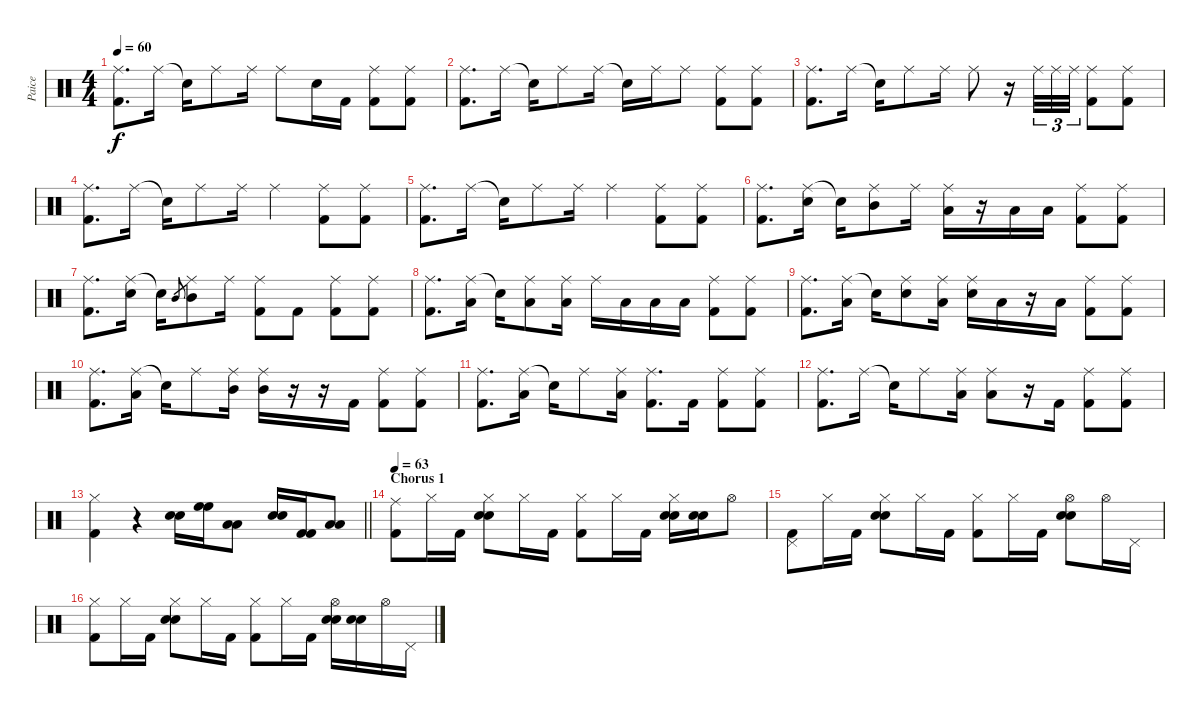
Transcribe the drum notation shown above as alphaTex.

\track ("Paice" "Paice") {instrument percussion}
\staff {score}
\articulation defaults
\ts (4 4)
\tempo 60
\clef neutral
\ks c
("Ride (middle)" "Kick (hit) 2").8{d dy f} "Ride (middle)".16 "Snare (hit)"{t}.16 "Ride (middle)".8 "Ride (middle)".16 "Ride (middle)".8 "Snare (hit)"{x}.16 "Kick (hit) 2".16 ("Ride (middle)" "Kick (hit) 2").8 ("Ride (middle)" "Kick (hit) 2").8 |
("Ride (middle)" "Kick (hit) 2").8{d} "Ride (middle)".16 "Snare (hit)"{t}.16 "Ride (middle)".8 "Ride (middle)".16 "Snare (hit)"{t}.16 "Ride (middle)".16 "Ride (middle)".8 ("Ride (middle)" "Kick (hit) 2").8 ("Ride (middle)" "Kick (hit) 2").8 |
("Ride (middle)" "Kick (hit) 2").8{d} "Ride (middle)".16 "Snare (hit)"{t}.16 "Ride (middle)".8 "Ride (middle)".16 "Ride (middle)".8 r.16 "Ride (middle)".32{tu (3 2)} "Ride (middle)".32{tu (3 2)} "Ride (middle)".32{tu (3 2)} ("Ride (middle)" "Kick (hit) 2").8 ("Ride (middle)" "Kick (hit) 2").8 |
("Ride (middle)" "Kick (hit) 2").8{d} "Ride (middle)".16 "Snare (hit)"{t}.16 "Ride (middle)".8 "Ride (middle)".16 "Ride (middle)".4 ("Ride (middle)" "Kick (hit) 2").8 ("Ride (middle)" "Kick (hit) 2").8 |
("Ride (middle)" "Kick (hit) 2").8{d} "Ride (middle)".16 "Snare (hit)"{t}.16 "Ride (middle)".8 "Ride (middle)".16 "Ride (middle)".4 ("Ride (middle)" "Kick (hit) 2").8 ("Ride (middle)" "Kick (hit) 2").8 |
("Ride (middle)" "Kick (hit) 2").8{d} ("Ride (middle)" "Electric Snare (hit)").16 "Snare (hit)"{t}.16 ("Ride (middle)" "Mid Tom (hit)").8 "Ride (middle)".16 ("Ride (middle)" "Low Tom (hit)").16 r.16 "Low Tom (hit)".16 "Low Tom (hit)".16 ("Ride (middle)" "Kick (hit) 2").8 ("Ride (middle)" "Kick (hit) 2").8 |
("Ride (middle)" "Kick (hit) 2").8{d} ("Ride (middle)" "Electric Snare (hit)").16 "Snare (hit)"{t}.16 "Mid Tom (hit)".8{gr} ("Ride (middle)" "Mid Tom (hit)").8 "Ride (middle)".16 ("Ride (middle)" "Kick (hit) 2").8 "Kick (hit) 2".8 ("Ride (middle)" "Kick (hit) 2").8 ("Ride (middle)" "Kick (hit) 2").8 |
("Ride (middle)" "Kick (hit) 2").8{d} ("Ride (middle)" "Low Tom (hit)").16 "Snare (hit)"{t}.16 ("Ride (middle)" "Low Tom (hit)").8 ("Ride (middle)" "Low Tom (hit)").16 "Ride (middle)".16 "Low Tom (hit)".16 "Low Tom (hit)".16 "Low Tom (hit)".16 ("Ride (middle)" "Kick (hit) 2").8 ("Ride (middle)" "Kick (hit) 2").8 |
("Ride (middle)" "Kick (hit) 2").8{d} ("Ride (middle)" "Low Tom (hit)").16 "Snare (hit)"{t}.16 ("Ride (middle)" "Electric Snare (hit)").8 ("Ride (middle)" "Low Floor Tom (hit)").16 ("Ride (middle)" "Electric Snare (hit)").16 "Low Tom (hit)".16 r.16 "Low Tom (hit)".16 ("Ride (middle)" "Kick (hit) 2").8 ("Ride (middle)" "Kick (hit) 2").8 |
("Ride (middle)" "Kick (hit) 2").8{d} ("Ride (middle)" "Low Tom (hit)").16 "Snare (hit)"{t}.16 "Ride (middle)".8 ("Ride (middle)" "Mid Tom (hit)").16 ("Ride (middle)" "Mid Tom (hit)").16 r.16 r.16 "Kick (hit) 2".16 ("Ride (middle)" "Kick (hit) 2").8 ("Ride (middle)" "Kick (hit) 2").8 |
("Ride (middle)" "Kick (hit) 2").8{d} ("Ride (middle)" "Low Tom (hit)").16 "Snare (hit)"{t}.16 "Ride (middle)".8 ("Ride (middle)" "Low Tom (hit)").16 ("Ride (middle)" "Kick (hit) 2").8{d} "Kick (hit) 2".16 ("Ride (middle)" "Kick (hit) 2").8 ("Ride (middle)" "Kick (hit) 2").8 |
("Ride (middle)" "Kick (hit) 2").8{d} "Ride (middle)".16 "Snare (hit)"{t}.16 "Ride (middle)".8 ("Ride (middle)" "Low Tom (hit)").16 ("Ride (middle)" "Low Tom (hit)").8 r.16 "Kick (hit) 2".16 ("Ride (middle)" "Kick (hit) 2").8 ("Ride (middle)" "Kick (hit) 2").8 |
\barLineRight lightlight
("Hi-Hat (closed)" "Kick (hit) 2").4 r.4 ("Electric Snare (hit)" "Electric Snare (hit)").16 ("High Floor Tom (hit)" "High Floor Tom (hit)").16 ("Low Tom (hit)" "Low Tom (hit)").8 ("Electric Snare (hit)" "Electric Snare (hit)").16 ("Kick (hit) 2" "Kick (hit) 2").16 ("Low Tom (hit)" "Low Tom (hit)").8 |
\section ("" "Chorus 1")
\tempo 63
("Ride (middle)" "Kick (hit) 2").8 "Hi-Hat (closed)".16 "Kick (hit) 2".16 ("Hi-Hat (closed)" "Electric Snare (hit)" "Electric Snare (hit)").8 "Hi-Hat (closed)".16 "Kick (hit) 2".16 ("Hi-Hat (closed)" "Kick (hit) 2").8 "Hi-Hat (closed)".16 "Kick (hit) 2".16 ("Hi-Hat (closed)" "Electric Snare (hit)" "Electric Snare (hit)").16 ("Electric Snare (hit)" "Electric Snare (hit)").16 "Hi-Hat (open)".8 |
("Pedal Hi-Hat (hit)" "Kick (hit) 2").8 "Hi-Hat (closed)".16 "Kick (hit) 2".16 ("Hi-Hat (closed)" "Electric Snare (hit)" "Electric Snare (hit)").8 "Hi-Hat (closed)".16 "Kick (hit) 2".16 ("Hi-Hat (closed)" "Kick (hit) 2").8 "Hi-Hat (closed)".16 "Kick (hit) 2".16 ("Hi-Hat (open)" "Electric Snare (hit)" "Electric Snare (hit)").8 "Hi-Hat (open)".16 "Pedal Hi-Hat (hit)".16 |
("Hi-Hat (closed)" "Kick (hit) 2").8 "Hi-Hat (closed)".16 "Kick (hit) 2".16 ("Hi-Hat (closed)" "Electric Snare (hit)" "Electric Snare (hit)").8 "Hi-Hat (closed)".16 "Kick (hit) 2".16 ("Hi-Hat (closed)" "Kick (hit) 2").8 "Hi-Hat (closed)".16 "Kick (hit) 2".16 ("Hi-Hat (open)" "Electric Snare (hit)" "Electric Snare (hit)").16 ("Electric Snare (hit)" "Electric Snare (hit)").16 "Hi-Hat (open)".16 "Pedal Hi-Hat (hit)".16
